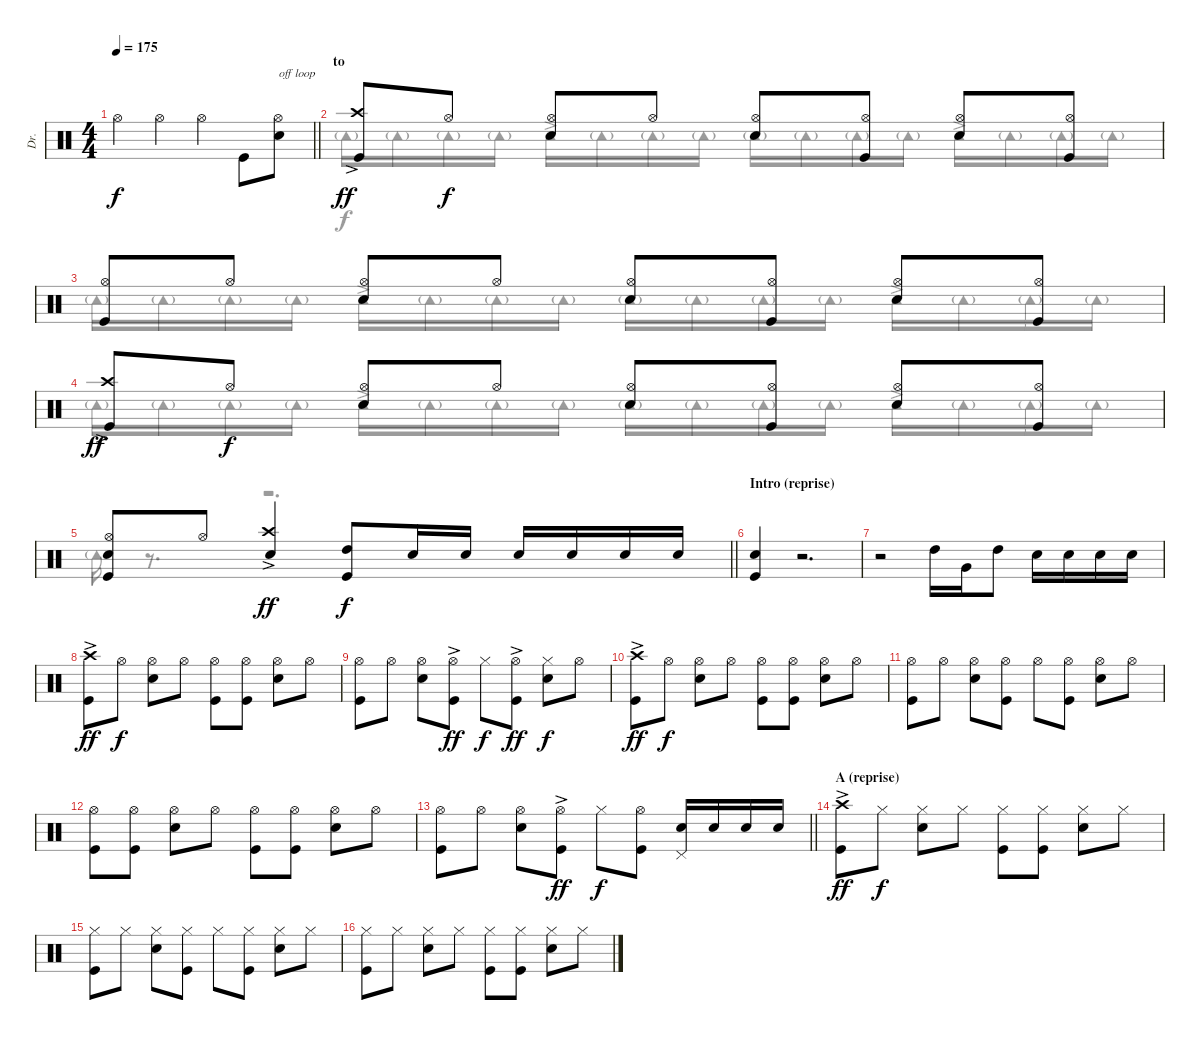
\track ("Dr." "Dr.") {instrument percussion}
\staff {score}
\articulation defaults
\voice
\ts (4 4)
\tempo 175
\clef neutral
\barLineRight lightlight
\ks c "Hi-Hat (open)".4{dy f} "Hi-Hat (open)".4 "Hi-Hat (open)".4 "Kick (hit)".8
("Hi-Hat (open)" "Snare (hit) 2").8{txt "off loop"} |
\section ("" "to")
("Crash high (hit)"{ac} "Kick (hit)"{ac}).8{dy ff} "Hi-Hat (open)".8{dy f} ("Hi-Hat (open)" "Snare (hit) 2").8 "Hi-Hat (open)".8 ("Hi-Hat (open)" "Snare (hit) 2").8 ("Hi-Hat (open)" "Kick (hit)").8 ("Hi-Hat (open)" "Snare (hit) 2").8 ("Hi-Hat (open)" "Kick (hit)").8 |
("Hi-Hat (open)" "Kick (hit)").8 "Hi-Hat (open)".8 ("Hi-Hat (open)" "Snare (hit) 2").8 "Hi-Hat (open)".8 ("Hi-Hat (open)" "Snare (hit) 2").8 ("Hi-Hat (open)" "Kick (hit)").8 ("Hi-Hat (open)" "Snare (hit) 2").8 ("Hi-Hat (open)" "Kick (hit)").8 |
("Crash high (hit)"{ac} "Kick (hit)"{ac}).8{dy ff} "Hi-Hat (open)".8{dy f} ("Hi-Hat (open)" "Snare (hit) 2").8 "Hi-Hat (open)".8 ("Hi-Hat (open)" "Snare (hit) 2").8 ("Hi-Hat (open)" "Kick (hit)").8 ("Hi-Hat (open)" "Snare (hit) 2").8 ("Hi-Hat (open)" "Kick (hit)").8 |
\barLineRight lightlight
("Hi-Hat (open)" "Snare (hit) 2" "Kick (hit)").8 "Hi-Hat (open)".8 ("Crash high (hit)"{ac} "Snare (hit) 2"{ac}).4{dy ff} ("High Tom (hit)" "Kick (hit)").8{dy f} "Snare (hit) 2".16 "Snare (hit) 2".16 "Snare (hit) 2".16 "Snare (hit) 2".16 "Snare (hit) 2".16 "Snare (hit) 2".16 |
\section ("" "Intro (reprise)")
("Snare (hit) 2" "Kick (hit)").4 r.2{d} |
r.2 "High Tom (hit)".16 "Very Low Tom (hit)".16 "High Tom (hit)".8 "Snare (hit) 2".16 "Snare (hit) 2".16 "Snare (hit) 2".16 "Snare (hit) 2".16 |
("Crash high (hit)"{ac} "Kick (hit)"{ac}).8{dy ff} "Hi-Hat (open)".8{dy f} ("Hi-Hat (open)" "Snare (hit) 2").8 "Hi-Hat (open)".8 ("Hi-Hat (open)" "Kick (hit)").8 ("Hi-Hat (open)" "Kick (hit)").8 ("Hi-Hat (open)" "Snare (hit) 2").8 "Hi-Hat (open)".8 |
("Hi-Hat (open)" "Kick (hit)").8 "Hi-Hat (open)".8 ("Hi-Hat (open)" "Snare (hit) 2").8 ("Hi-Hat (open)"{ac} "Kick (hit)"{ac}).8{dy ff} "Hi-Hat (closed)".8{dy f} ("Hi-Hat (open)"{ac} "Kick (hit)"{ac}).8{dy ff} ("Hi-Hat (closed)" "Snare (hit) 2").8{dy f} "Hi-Hat (open)".8 |
("Crash high (hit)"{ac} "Kick (hit)"{ac}).8{dy ff} "Hi-Hat (open)".8{dy f} ("Hi-Hat (open)" "Snare (hit) 2").8 "Hi-Hat (open)".8 ("Hi-Hat (open)" "Kick (hit)").8 ("Hi-Hat (open)" "Kick (hit)").8 ("Hi-Hat (open)" "Snare (hit) 2").8 "Hi-Hat (open)".8 |
("Hi-Hat (open)" "Kick (hit)").8 "Hi-Hat (open)".8 ("Hi-Hat (open)" "Snare (hit) 2").8 ("Hi-Hat (open)" "Kick (hit)").8 "Hi-Hat (open)".8 ("Hi-Hat (open)" "Kick (hit)").8 ("Hi-Hat (open)" "Snare (hit) 2").8 "Hi-Hat (open)".8 |
("Hi-Hat (open)" "Kick (hit)").8 ("Hi-Hat (open)" "Kick (hit)").8 ("Hi-Hat (open)" "Snare (hit) 2").8 "Hi-Hat (open)".8 ("Hi-Hat (open)" "Kick (hit)").8 ("Hi-Hat (open)" "Kick (hit)").8 ("Hi-Hat (open)" "Snare (hit) 2").8 "Hi-Hat (open)".8 |
\barLineRight lightlight
("Hi-Hat (open)" "Kick (hit)").8 "Hi-Hat (open)".8 ("Hi-Hat (open)" "Snare (hit) 2").8 ("Hi-Hat (open)"{ac} "Kick (hit)"{ac}).8{dy ff} "Hi-Hat (closed)".8{dy f} ("Hi-Hat (open)" "Kick (hit)").8 ("Pedal Hi-Hat (hit)" "Snare (hit) 2").16 "Snare (hit) 2".16 "Snare (hit) 2".16 "Snare (hit) 2".16 |
\section ("" "A (reprise)")
("Crash high (hit)"{ac} "Kick (hit)"{ac}).8{dy ff} "Hi-Hat (closed)".8{dy f} ("Hi-Hat (closed)" "Snare (hit) 2").8 "Hi-Hat (closed)".8 ("Hi-Hat (closed)" "Kick (hit)").8 ("Hi-Hat (closed)" "Kick (hit)").8 ("Hi-Hat (closed)" "Snare (hit) 2").8 "Hi-Hat (closed)".8 |
("Hi-Hat (closed)" "Kick (hit)").8 "Hi-Hat (closed)".8 ("Hi-Hat (closed)" "Snare (hit) 2").8 ("Hi-Hat (closed)" "Kick (hit)").8 "Hi-Hat (closed)".8 ("Hi-Hat (closed)" "Kick (hit)").8 ("Hi-Hat (closed)" "Snare (hit) 2").8 "Hi-Hat (closed)".8 |
("Hi-Hat (closed)" "Kick (hit)").8 "Hi-Hat (closed)".8 ("Hi-Hat (closed)" "Snare (hit) 2").8 "Hi-Hat (closed)".8 ("Hi-Hat (closed)" "Kick (hit)").8 ("Hi-Hat (closed)" "Kick (hit)").8 ("Hi-Hat (closed)" "Snare (hit) 2").8 "Hi-Hat (closed)".8
\voice
\clef neutral
\ottava regular
\simile none
\barLineRight lightlight
\ks c
|
"Tambourine (hit)"{g}.16 "Tambourine (hit)"{g}.16 "Tambourine (hit)"{g}.16 "Tambourine (hit)"{g}.16 "Tambourine (hit)"{ac}.16 "Tambourine (hit)"{g}.16 "Tambourine (hit)"{g}.16 "Tambourine (hit)"{g}.16 "Tambourine (hit)"{g}.16 "Tambourine (hit)"{g}.16 "Tambourine (hit)"{g}.16 "Tambourine (hit)"{g}.16 "Tambourine (hit)"{ac}.16 "Tambourine (hit)"{g}.16 "Tambourine (hit)"{g}.16 "Tambourine (hit)"{g}.16 |
"Tambourine (hit)"{g}.16 "Tambourine (hit)"{g}.16 "Tambourine (hit)"{g}.16 "Tambourine (hit)"{g}.16 "Tambourine (hit)"{ac}.16 "Tambourine (hit)"{g}.16 "Tambourine (hit)"{g}.16 "Tambourine (hit)"{g}.16 "Tambourine (hit)"{g}.16 "Tambourine (hit)"{g}.16 "Tambourine (hit)"{g}.16 "Tambourine (hit)"{g}.16 "Tambourine (hit)"{ac}.16 "Tambourine (hit)"{g}.16 "Tambourine (hit)"{g}.16 "Tambourine (hit)"{g}.16 |
"Tambourine (hit)"{g}.16 "Tambourine (hit)"{g}.16 "Tambourine (hit)"{g}.16 "Tambourine (hit)"{g}.16 "Tambourine (hit)"{ac}.16 "Tambourine (hit)"{g}.16 "Tambourine (hit)"{g}.16 "Tambourine (hit)"{g}.16 "Tambourine (hit)"{g}.16 "Tambourine (hit)"{g}.16 "Tambourine (hit)"{g}.16 "Tambourine (hit)"{g}.16 "Tambourine (hit)"{ac}.16 "Tambourine (hit)"{g}.16 "Tambourine (hit)"{g}.16 "Tambourine (hit)"{g}.16 |
\barLineRight lightlight "Tambourine (hit)"{g}.16
r.8{d} r.2{d} |
|
|
|
|
|
|
|
\barLineRight lightlight
|
|
|
